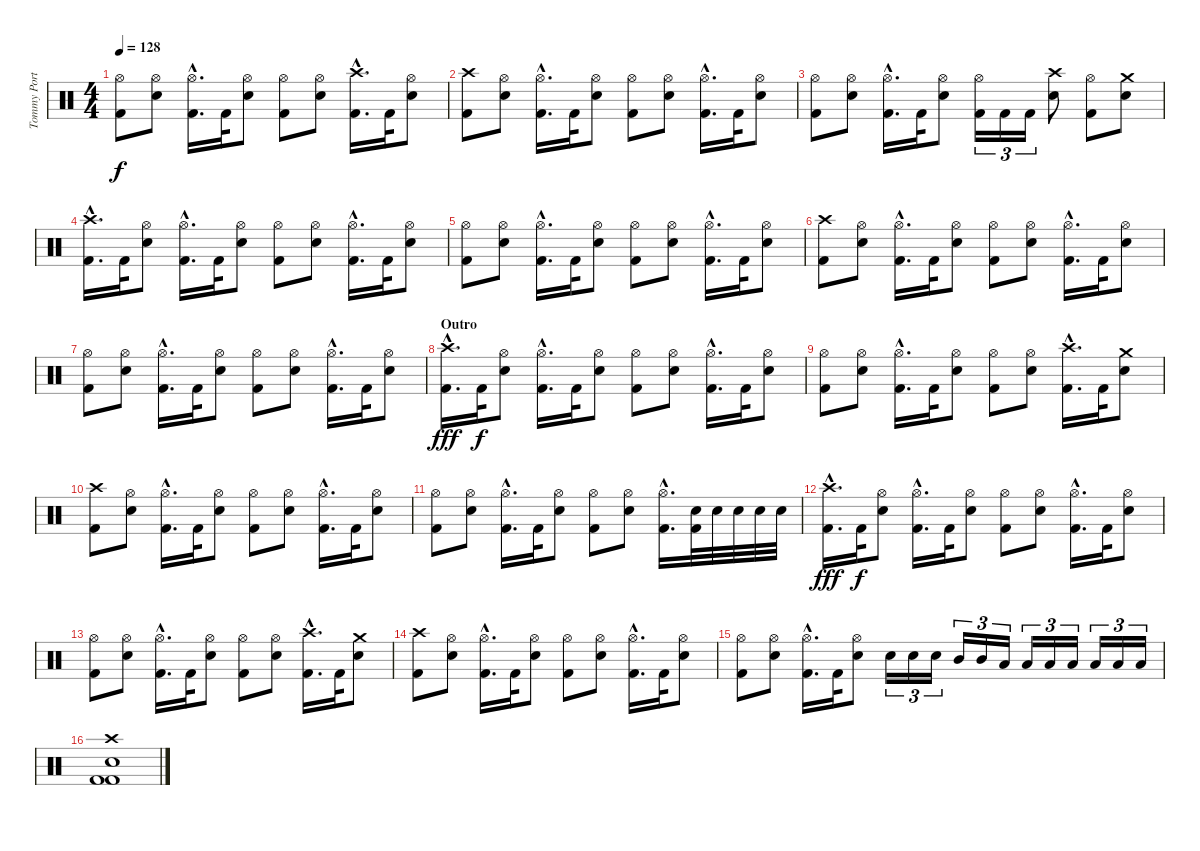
\track ("Tommy Portimo" "Tommy Port") {instrument percussion}
\staff {score}
\articulation defaults
\ts (4 4)
\tempo 128
\clef neutral
\ks c
("Hi-Hat (open)" "Kick (hit) 2").8{dy f} ("Hi-Hat (open)" "Snare (hit) 2").8 ("Hi-Hat (open)"{hac} "Kick (hit) 2"{hac}).16{d} "Kick (hit) 2".32 ("Hi-Hat (open)" "Snare (hit) 2").8 ("Hi-Hat (open)" "Kick (hit) 2").8 ("Hi-Hat (open)" "Snare (hit) 2").8 ("Crash high (hit)"{hac} "Kick (hit) 2"{hac}).16{d} "Kick (hit) 2".32 ("Hi-Hat (open)" "Snare (hit) 2").8 |
("Crash high (hit)" "Kick (hit) 2").8 ("Hi-Hat (open)" "Snare (hit) 2").8 ("Hi-Hat (open)"{hac} "Kick (hit) 2"{hac}).16{d} "Kick (hit) 2".32 ("Hi-Hat (open)" "Snare (hit) 2").8 ("Hi-Hat (open)" "Kick (hit) 2").8 ("Hi-Hat (open)" "Snare (hit) 2").8 ("Hi-Hat (open)"{hac} "Kick (hit) 2"{hac}).16{d} "Kick (hit) 2".32 ("Hi-Hat (open)" "Snare (hit) 2").8 |
("Hi-Hat (open)" "Kick (hit) 2").8 ("Hi-Hat (open)" "Snare (hit) 2").8 ("Hi-Hat (open)"{hac} "Kick (hit) 2"{hac}).16{d} "Kick (hit) 2".32 ("Hi-Hat (open)" "Snare (hit) 2").8 ("Hi-Hat (open)" "Kick (hit) 2").16{tu (3 2)} "Kick (hit) 2".16{tu (3 2)} "Kick (hit) 2".16{tu (3 2)} ("Crash high (hit)" "Snare (hit) 2").8 ("Hi-Hat (open)" "Kick (hit) 2").8 ("Crash medium (hit)" "Snare (hit) 2").8 |
("Crash high (hit)"{hac} "Kick (hit) 2"{hac}).16{d} "Kick (hit) 2".32 ("Hi-Hat (open)" "Snare (hit) 2").8 ("Hi-Hat (open)"{hac} "Kick (hit) 2"{hac}).16{d} "Kick (hit) 2".32 ("Hi-Hat (open)" "Snare (hit) 2").8 ("Hi-Hat (open)" "Kick (hit) 2").8 ("Hi-Hat (open)" "Snare (hit) 2").8 ("Hi-Hat (open)"{hac} "Kick (hit) 2"{hac}).16{d} "Kick (hit) 2".32 ("Hi-Hat (open)" "Snare (hit) 2").8 |
("Hi-Hat (open)" "Kick (hit) 2").8 ("Hi-Hat (open)" "Snare (hit) 2").8 ("Hi-Hat (open)"{hac} "Kick (hit) 2"{hac}).16{d} "Kick (hit) 2".32 ("Hi-Hat (open)" "Snare (hit) 2").8 ("Hi-Hat (open)" "Kick (hit) 2").8 ("Hi-Hat (open)" "Snare (hit) 2").8 ("Hi-Hat (open)"{hac} "Kick (hit) 2"{hac}).16{d} "Kick (hit) 2".32 ("Hi-Hat (open)" "Snare (hit) 2").8 |
("Crash high (hit)" "Kick (hit) 2").8 ("Hi-Hat (open)" "Snare (hit) 2").8 ("Hi-Hat (open)"{hac} "Kick (hit) 2"{hac}).16{d} "Kick (hit) 2".32 ("Hi-Hat (open)" "Snare (hit) 2").8 ("Hi-Hat (open)" "Kick (hit) 2").8 ("Hi-Hat (open)" "Snare (hit) 2").8 ("Hi-Hat (open)"{hac} "Kick (hit) 2"{hac}).16{d} "Kick (hit) 2".32 ("Hi-Hat (open)" "Snare (hit) 2").8 |
("Hi-Hat (open)" "Kick (hit) 2").8 ("Hi-Hat (open)" "Snare (hit) 2").8 ("Hi-Hat (open)"{hac} "Kick (hit) 2"{hac}).16{d} "Kick (hit) 2".32 ("Hi-Hat (open)" "Snare (hit) 2").8 ("Hi-Hat (open)" "Kick (hit) 2").8 ("Hi-Hat (open)" "Snare (hit) 2").8 ("Hi-Hat (open)"{hac} "Kick (hit) 2"{hac}).16{d} "Kick (hit) 2".32 ("Hi-Hat (open)" "Snare (hit) 2").8 |
\section ("" "Outro")
("Crash high (hit)"{hac} "Kick (hit) 2"{hac}).16{d dy fff} "Kick (hit) 2".32{dy f} ("Hi-Hat (open)" "Snare (hit) 2").8 ("Hi-Hat (open)"{hac} "Kick (hit) 2"{hac}).16{d} "Kick (hit) 2".32 ("Hi-Hat (open)" "Snare (hit) 2").8 ("Hi-Hat (open)" "Kick (hit) 2").8 ("Hi-Hat (open)" "Snare (hit) 2").8 ("Hi-Hat (open)"{hac} "Kick (hit) 2"{hac}).16{d} "Kick (hit) 2".32 ("Hi-Hat (open)" "Snare (hit) 2").8 |
("Hi-Hat (open)" "Kick (hit) 2").8 ("Hi-Hat (open)" "Snare (hit) 2").8 ("Hi-Hat (open)"{hac} "Kick (hit) 2"{hac}).16{d} "Kick (hit) 2".32 ("Hi-Hat (open)" "Snare (hit) 2").8 ("Hi-Hat (open)" "Kick (hit) 2").8 ("Hi-Hat (open)" "Snare (hit) 2").8 ("Crash high (hit)"{hac} "Kick (hit) 2"{hac}).16{d} "Kick (hit) 2".32 ("Crash medium (hit)" "Snare (hit) 2").8 |
("Crash high (hit)" "Kick (hit) 2").8 ("Hi-Hat (open)" "Snare (hit) 2").8 ("Hi-Hat (open)"{hac} "Kick (hit) 2"{hac}).16{d} "Kick (hit) 2".32 ("Hi-Hat (open)" "Snare (hit) 2").8 ("Hi-Hat (open)" "Kick (hit) 2").8 ("Hi-Hat (open)" "Snare (hit) 2").8 ("Hi-Hat (open)"{hac} "Kick (hit) 2"{hac}).16{d} "Kick (hit) 2".32 ("Hi-Hat (open)" "Snare (hit) 2").8 |
("Hi-Hat (open)" "Kick (hit) 2").8 ("Hi-Hat (open)" "Snare (hit) 2").8 ("Hi-Hat (open)"{hac} "Kick (hit) 2"{hac}).16{d} "Kick (hit) 2".32 ("Hi-Hat (open)" "Snare (hit) 2").8 ("Hi-Hat (open)" "Kick (hit) 2").8 ("Hi-Hat (open)" "Snare (hit) 2").8 ("Hi-Hat (open)"{hac} "Kick (hit) 2"{hac}).16{d} ("Snare (hit) 2" "Kick (hit) 2").32 "Snare (hit) 2".32 "Snare (hit) 2".32 "Snare (hit) 2".32 "Snare (hit) 2".32 |
("Crash high (hit)"{hac} "Kick (hit) 2"{hac}).16{d dy fff} "Kick (hit) 2".32{dy f} ("Hi-Hat (open)" "Snare (hit) 2").8 ("Hi-Hat (open)"{hac} "Kick (hit) 2"{hac}).16{d} "Kick (hit) 2".32 ("Hi-Hat (open)" "Snare (hit) 2").8 ("Hi-Hat (open)" "Kick (hit) 2").8 ("Hi-Hat (open)" "Snare (hit) 2").8 ("Hi-Hat (open)"{hac} "Kick (hit) 2"{hac}).16{d} "Kick (hit) 2".32 ("Hi-Hat (open)" "Snare (hit) 2").8 |
("Hi-Hat (open)" "Kick (hit) 2").8 ("Hi-Hat (open)" "Snare (hit) 2").8 ("Hi-Hat (open)"{hac} "Kick (hit) 2"{hac}).16{d} "Kick (hit) 2".32 ("Hi-Hat (open)" "Snare (hit) 2").8 ("Hi-Hat (open)" "Kick (hit) 2").8 ("Hi-Hat (open)" "Snare (hit) 2").8 ("Crash high (hit)"{hac} "Kick (hit) 2"{hac}).16{d} "Kick (hit) 2".32 ("Crash medium (hit)" "Snare (hit) 2").8 |
("Crash high (hit)" "Kick (hit) 2").8 ("Hi-Hat (open)" "Snare (hit) 2").8 ("Hi-Hat (open)"{hac} "Kick (hit) 2"{hac}).16{d} "Kick (hit) 2".32 ("Hi-Hat (open)" "Snare (hit) 2").8 ("Hi-Hat (open)" "Kick (hit) 2").8 ("Hi-Hat (open)" "Snare (hit) 2").8 ("Hi-Hat (open)"{hac} "Kick (hit) 2"{hac}).16{d} "Kick (hit) 2".32 ("Hi-Hat (open)" "Snare (hit) 2").8 |
("Hi-Hat (open)" "Kick (hit) 2").8 ("Hi-Hat (open)" "Snare (hit) 2").8 ("Hi-Hat (open)"{hac} "Kick (hit) 2"{hac}).16{d} "Kick (hit) 2".32 ("Hi-Hat (open)" "Snare (hit) 2").8 "Snare (hit) 2".16{tu (3 2)} "Snare (hit) 2".16{tu (3 2)} "Snare (hit) 2".16{tu (3 2)} "Mid Tom (hit)".16{tu (3 2)} "Mid Tom (hit)".16{tu (3 2)} "Low Tom (hit)".16{tu (3 2)} "Low Tom (hit)".16{tu (3 2)} "Low Floor Tom (hit)".16{tu (3 2)} "Low Floor Tom (hit)".16{tu (3 2)} "Low Floor Tom (hit)".16{tu (3 2)} "Low Floor Tom (hit)".16{tu (3 2)} "Low Floor Tom (hit)".16{tu (3 2)} |
("Crash high (hit)" "Snare (hit) 2" "Kick (hit) 2" "Kick (hit) 2").1
